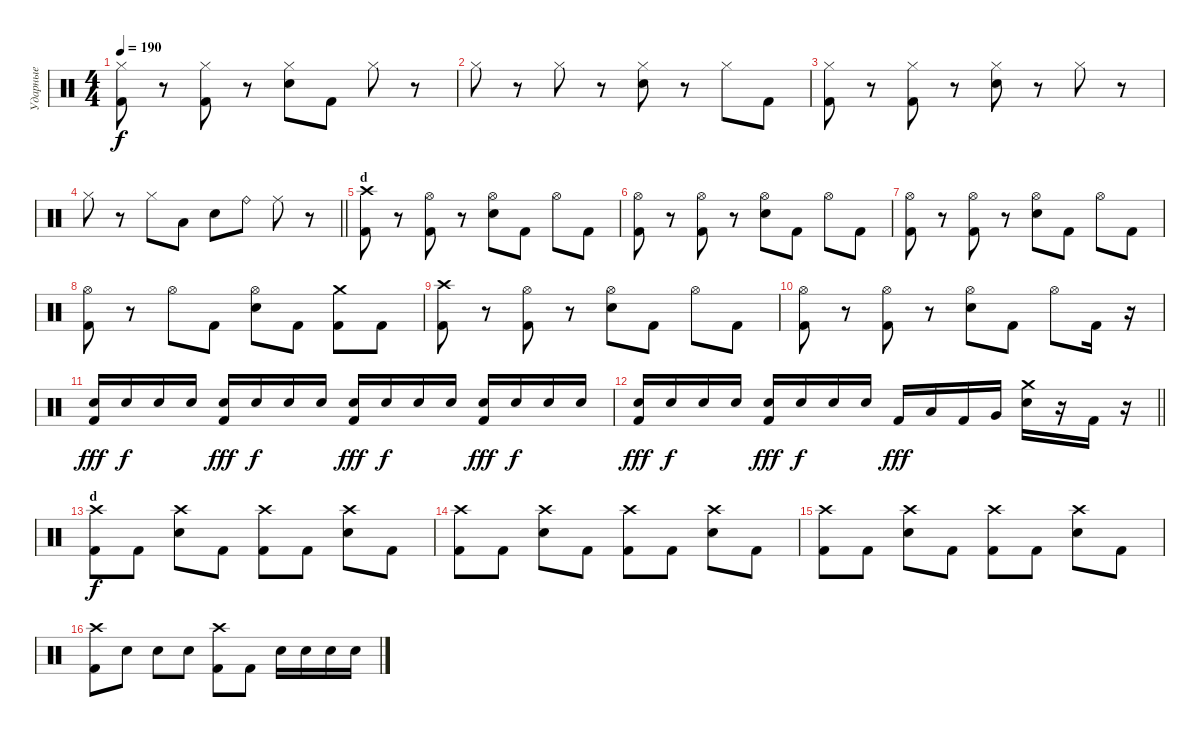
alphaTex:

\track ("Ударные" "Ударные") {instrument percussion}
\staff {score}
\articulation defaults
\ts (4 4)
\tempo 190
\clef neutral
\ks c
("Hi-Hat (closed)" "Kick (hit) 2").8{dy f} r.8 ("Hi-Hat (closed)" "Kick (hit) 2").8 r.8 ("Hi-Hat (closed)" "Snare (hit) 2").8 "Kick (hit) 2".8 "Hi-Hat (closed)".8 r.8 |
"Hi-Hat (closed)".8 r.8 "Hi-Hat (closed)".8 r.8 ("Hi-Hat (closed)" "Snare (hit) 2").8 r.8 "Hi-Hat (closed)".8 "Kick (hit) 2".8 |
("Hi-Hat (closed)" "Kick (hit) 2").8 r.8 ("Hi-Hat (closed)" "Kick (hit) 2").8 r.8 ("Hi-Hat (closed)" "Snare (hit) 2").8 r.8 "Hi-Hat (closed)".8 r.8 |
\barLineRight lightlight "Hi-Hat (closed)".8
r.8 "Hi-Hat (closed)".8 "Low Tom (hit)".8 "Snare (hit) 2".8 "Ride (bell)".8 "Ride (middle)".8 r.8 |
\section ("" "d")
("Crash high (hit)" "Kick (hit) 2").8 r.8 ("Hi-Hat (open)" "Kick (hit) 2").8 r.8 ("Hi-Hat (open)" "Snare (hit) 2").8 "Kick (hit) 2".8 "Hi-Hat (open)".8 "Kick (hit) 2".8 |
("Hi-Hat (open)" "Kick (hit) 2").8 r.8 ("Hi-Hat (open)" "Kick (hit) 2").8 r.8 ("Hi-Hat (open)" "Snare (hit) 2").8 "Kick (hit) 2".8 "Hi-Hat (open)".8 "Kick (hit) 2".8 |
("Hi-Hat (open)" "Kick (hit) 2").8 r.8 ("Hi-Hat (open)" "Kick (hit) 2").8 r.8 ("Hi-Hat (open)" "Snare (hit) 2").8 "Kick (hit) 2".8 "Hi-Hat (open)".8 "Kick (hit) 2".8 |
("Hi-Hat (open)" "Kick (hit) 2").8 r.8 "Hi-Hat (open)".8 "Kick (hit) 2".8 ("Hi-Hat (open)" "Snare (hit) 2").8 "Kick (hit) 2".8 ("Crash medium (hit)" "Kick (hit) 2").8 "Kick (hit) 2".8 |
("Crash high (hit)" "Kick (hit) 2").8 r.8 ("Hi-Hat (open)" "Kick (hit) 2").8 r.8 ("Hi-Hat (open)" "Snare (hit) 2").8 "Kick (hit) 2".8 "Hi-Hat (open)".8 "Kick (hit) 2".8 |
("Hi-Hat (open)" "Kick (hit) 2").8 r.8 ("Hi-Hat (open)" "Kick (hit) 2").8 r.8 ("Hi-Hat (open)" "Snare (hit) 2").8 "Kick (hit) 2".8 "Hi-Hat (open)".8 "Kick (hit) 2".16 r.16{volume 8} |
("Kick (hit) 2" "Snare (hit) 2").16{dy fff volume 16} "Snare (hit) 2".16{dy f} "Snare (hit) 2".16 "Snare (hit) 2".16 ("Kick (hit) 2" "Snare (hit) 2").16{dy fff} "Snare (hit) 2".16{dy f} "Snare (hit) 2".16 "Snare (hit) 2".16 ("Kick (hit) 2" "Snare (hit) 2").16{dy fff} "Snare (hit) 2".16{dy f} "Snare (hit) 2".16 "Snare (hit) 2".16 ("Kick (hit) 2" "Snare (hit) 2").16{dy fff} "Snare (hit) 2".16{dy f} "Snare (hit) 2".16 "Snare (hit) 2".16 |
\barLineRight lightlight
("Kick (hit) 2" "Snare (hit) 2").16{dy fff} "Snare (hit) 2".16{dy f} "Snare (hit) 2".16 "Snare (hit) 2".16 ("Kick (hit) 2" "Snare (hit) 2").16{dy fff} "Snare (hit) 2".16{dy f} "Snare (hit) 2".16 "Snare (hit) 2".16 "Kick (hit) 2".16{dy fff} "Low Tom (hit)".16 "Kick (hit) 2".16 "Very Low Tom (hit)".16 ("Crash medium (hit)" "Snare (hit) 2").16 r.16 "Kick (hit) 2".16 r.16 |
\section ("" "d")
("Crash high (hit)" "Kick (hit) 2").8{dy f} "Kick (hit) 2".8 ("Crash high (hit)" "Snare (hit) 2").8 "Kick (hit) 2".8 ("Crash high (hit)" "Kick (hit) 2").8 "Kick (hit) 2".8 ("Crash high (hit)" "Snare (hit) 2").8 "Kick (hit) 2".8 |
("Crash high (hit)" "Kick (hit) 2").8 "Kick (hit) 2".8 ("Crash high (hit)" "Snare (hit) 2").8 "Kick (hit) 2".8 ("Crash high (hit)" "Kick (hit) 2").8 "Kick (hit) 2".8 ("Crash high (hit)" "Snare (hit) 2").8 "Kick (hit) 2".8 |
("Crash high (hit)" "Kick (hit) 2").8 "Kick (hit) 2".8 ("Crash high (hit)" "Snare (hit) 2").8 "Kick (hit) 2".8 ("Crash high (hit)" "Kick (hit) 2").8 "Kick (hit) 2".8 ("Crash high (hit)" "Snare (hit) 2").8 "Kick (hit) 2".8 |
("Crash high (hit)" "Kick (hit) 2").8 "Snare (hit) 2".8 "Snare (hit) 2".8 "Snare (hit) 2".8 ("Crash high (hit)" "Kick (hit) 2").8 "Kick (hit) 2".8 "Snare (hit) 2".16 "Snare (hit) 2".16 "Snare (hit) 2".16 "Snare (hit) 2".16
